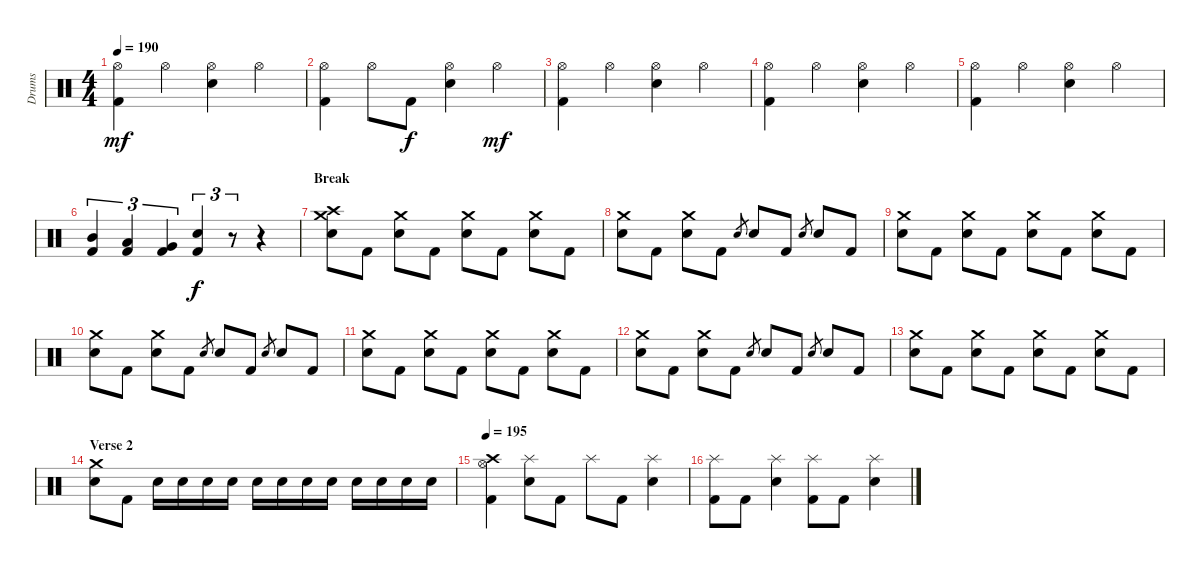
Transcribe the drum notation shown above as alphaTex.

\track ("Drums" "Drums") {instrument percussion}
\staff {score}
\articulation defaults
\ts (4 4)
\tempo 190
\clef neutral
\ks c
("Hi-Hat (open)" "Kick (hit) 2").4{dy mf} "Hi-Hat (open)".4 ("Hi-Hat (open)" "Electric Snare (hit)").4 "Hi-Hat (open)".4 |
("Hi-Hat (open)" "Kick (hit) 2").4 "Hi-Hat (open)".8 "Kick (hit) 2".8{dy f} ("Hi-Hat (open)" "Electric Snare (hit)").4 "Hi-Hat (open)".4{dy mf} |
("Hi-Hat (open)" "Kick (hit) 2").4 "Hi-Hat (open)".4 ("Hi-Hat (open)" "Electric Snare (hit)").4 "Hi-Hat (open)".4 |
("Hi-Hat (open)" "Kick (hit) 2").4 "Hi-Hat (open)".4 ("Hi-Hat (open)" "Electric Snare (hit)").4 "Hi-Hat (open)".4 |
("Hi-Hat (open)" "Kick (hit) 2").4 "Hi-Hat (open)".4 ("Hi-Hat (open)" "Electric Snare (hit)").4 "Hi-Hat (open)".4 |
("Mid Tom (hit)" "Kick (hit) 2").4{tu (3 2) bd 120} ("Low Tom (hit)" "Kick (hit) 2").4{tu (3 2) bd 120} ("Very Low Tom (hit)" "Kick (hit) 2").4{tu (3 2) bd 120} ("Electric Snare (hit)" "Kick (hit) 2").4{tu (3 2) bd 120 dy f} r.8{tu (3 2)} r.4 |
\section ("" "Break")
("Crash medium (hit)" "Crash high (hit)" "Electric Snare (hit)").8 "Kick (hit) 2".8 ("Crash medium (hit)" "Electric Snare (hit)").8 "Kick (hit) 2".8 ("Crash medium (hit)" "Electric Snare (hit)").8 "Kick (hit) 2".8 ("Crash medium (hit)" "Electric Snare (hit)").8 "Kick (hit) 2".8 |
("Crash medium (hit)" "Electric Snare (hit)").8 "Kick (hit) 2".8 ("Crash medium (hit)" "Electric Snare (hit)").8 "Kick (hit) 2".8 "Electric Snare (hit)".8{gr} "Electric Snare (hit)".8 "Kick (hit) 2".8 "Electric Snare (hit)".8{gr} "Electric Snare (hit)".8 "Kick (hit) 2".8 |
("Crash medium (hit)" "Electric Snare (hit)").8 "Kick (hit) 2".8 ("Crash medium (hit)" "Electric Snare (hit)").8 "Kick (hit) 2".8 ("Crash medium (hit)" "Electric Snare (hit)").8 "Kick (hit) 2".8 ("Crash medium (hit)" "Electric Snare (hit)").8 "Kick (hit) 2".8 |
("Crash medium (hit)" "Electric Snare (hit)").8 "Kick (hit) 2".8 ("Crash medium (hit)" "Electric Snare (hit)").8 "Kick (hit) 2".8 "Electric Snare (hit)".8{gr} "Electric Snare (hit)".8 "Kick (hit) 2".8 "Electric Snare (hit)".8{gr} "Electric Snare (hit)".8 "Kick (hit) 2".8 |
("Crash medium (hit)" "Electric Snare (hit)").8 "Kick (hit) 2".8 ("Crash medium (hit)" "Electric Snare (hit)").8 "Kick (hit) 2".8 ("Crash medium (hit)" "Electric Snare (hit)").8 "Kick (hit) 2".8 ("Crash medium (hit)" "Electric Snare (hit)").8 "Kick (hit) 2".8 |
("Crash medium (hit)" "Electric Snare (hit)").8 "Kick (hit) 2".8 ("Crash medium (hit)" "Electric Snare (hit)").8 "Kick (hit) 2".8 "Electric Snare (hit)".8{gr} "Electric Snare (hit)".8 "Kick (hit) 2".8 "Electric Snare (hit)".8{gr} "Electric Snare (hit)".8 "Kick (hit) 2".8 |
("Crash medium (hit)" "Electric Snare (hit)").8 "Kick (hit) 2".8 ("Crash medium (hit)" "Electric Snare (hit)").8 "Kick (hit) 2".8 ("Crash medium (hit)" "Electric Snare (hit)").8 "Kick (hit) 2".8 ("Crash medium (hit)" "Electric Snare (hit)").8 "Kick (hit) 2".8 |
\section ("" "Verse 2")
("Crash medium (hit)" "Electric Snare (hit)").8 "Kick (hit) 2".8 "Electric Snare (hit)".16 "Electric Snare (hit)".16 "Electric Snare (hit)".16 "Electric Snare (hit)".16 "Electric Snare (hit)".16 "Electric Snare (hit)".16 "Electric Snare (hit)".16 "Electric Snare (hit)".16 "Electric Snare (hit)".16 "Electric Snare (hit)".16 "Electric Snare (hit)".16 "Electric Snare (hit)".16 |
\tempo 195
("Crash high (hit)" "Hi-Hat (open)" "Kick (hit) 2").4 ("Splash (hit)" "Electric Snare (hit)").8 "Kick (hit) 2".8 "Splash (hit)".8 "Kick (hit) 2".8 ("Splash (hit)" "Electric Snare (hit)").4 |
("Splash (hit)" "Kick (hit) 2").8 "Kick (hit) 2".8 ("Splash (hit)" "Electric Snare (hit)").4 ("Splash (hit)" "Kick (hit) 2").8 "Kick (hit) 2".8 ("Splash (hit)" "Electric Snare (hit)").4
